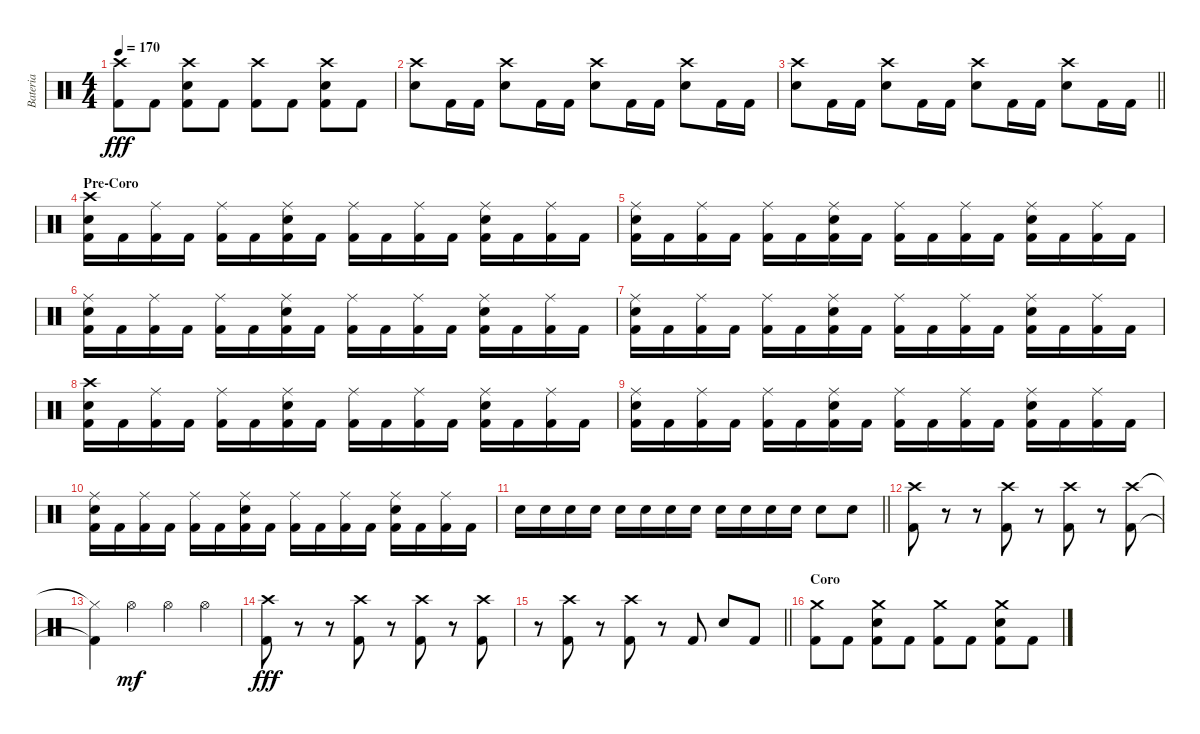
\track ("Bateria" "Bateria") {instrument percussion}
\staff {score}
\articulation defaults
\ts (4 4)
\tempo 170
\clef neutral
\ks c
("Crash high (hit)" "Kick (hit) 2").8{dy fff} "Kick (hit) 2".8 ("Crash high (hit)" "Electric Snare (hit)" "Kick (hit) 2").8 "Kick (hit) 2".8 ("Crash high (hit)" "Kick (hit) 2").8 "Kick (hit) 2".8 ("Crash high (hit)" "Electric Snare (hit)" "Kick (hit) 2").8 "Kick (hit) 2".8 |
("Crash high (hit)" "Electric Snare (hit)").8 "Kick (hit) 2".16 "Kick (hit) 2".16 ("Crash high (hit)" "Electric Snare (hit)").8 "Kick (hit) 2".16 "Kick (hit) 2".16 ("Crash high (hit)" "Electric Snare (hit)").8 "Kick (hit) 2".16 "Kick (hit) 2".16 ("Crash high (hit)" "Electric Snare (hit)").8 "Kick (hit) 2".16 "Kick (hit) 2".16 |
\barLineRight lightlight
("Crash high (hit)" "Electric Snare (hit)").8 "Kick (hit) 2".16 "Kick (hit) 2".16 ("Crash high (hit)" "Electric Snare (hit)").8 "Kick (hit) 2".16 "Kick (hit) 2".16 ("Crash high (hit)" "Electric Snare (hit)").8 "Kick (hit) 2".16 "Kick (hit) 2".16 ("Crash high (hit)" "Electric Snare (hit)").8 "Kick (hit) 2".16 "Kick (hit) 2".16 |
\section ("" "Pre-Coro")
("Crash high (hit)" "Electric Snare (hit)" "Kick (hit) 2").16 "Kick (hit) 2".16 ("Ride (middle)" "Kick (hit) 2").16 "Kick (hit) 2".16 ("Ride (middle)" "Kick (hit) 2").16 "Kick (hit) 2".16 ("Ride (middle)" "Electric Snare (hit)" "Kick (hit) 2").16 "Kick (hit) 2".16 ("Ride (middle)" "Kick (hit) 2").16 "Kick (hit) 2".16 ("Ride (middle)" "Kick (hit) 2").16 "Kick (hit) 2".16 ("Ride (middle)" "Electric Snare (hit)" "Kick (hit) 2").16 "Kick (hit) 2".16 ("Ride (middle)" "Kick (hit) 2").16 "Kick (hit) 2".16 |
("Ride (middle)" "Electric Snare (hit)" "Kick (hit) 2").16 "Kick (hit) 2".16 ("Ride (middle)" "Kick (hit) 2").16 "Kick (hit) 2".16 ("Ride (middle)" "Kick (hit) 2").16 "Kick (hit) 2".16 ("Ride (middle)" "Electric Snare (hit)" "Kick (hit) 2").16 "Kick (hit) 2".16 ("Ride (middle)" "Kick (hit) 2").16 "Kick (hit) 2".16 ("Ride (middle)" "Kick (hit) 2").16 "Kick (hit) 2".16 ("Ride (middle)" "Electric Snare (hit)" "Kick (hit) 2").16 "Kick (hit) 2".16 ("Ride (middle)" "Kick (hit) 2").16 "Kick (hit) 2".16 |
("Ride (middle)" "Electric Snare (hit)" "Kick (hit) 2").16 "Kick (hit) 2".16 ("Ride (middle)" "Kick (hit) 2").16 "Kick (hit) 2".16 ("Ride (middle)" "Kick (hit) 2").16 "Kick (hit) 2".16 ("Ride (middle)" "Electric Snare (hit)" "Kick (hit) 2").16 "Kick (hit) 2".16 ("Ride (middle)" "Kick (hit) 2").16 "Kick (hit) 2".16 ("Ride (middle)" "Kick (hit) 2").16 "Kick (hit) 2".16 ("Ride (middle)" "Electric Snare (hit)" "Kick (hit) 2").16 "Kick (hit) 2".16 ("Ride (middle)" "Kick (hit) 2").16 "Kick (hit) 2".16 |
("Ride (middle)" "Electric Snare (hit)" "Kick (hit) 2").16 "Kick (hit) 2".16 ("Ride (middle)" "Kick (hit) 2").16 "Kick (hit) 2".16 ("Ride (middle)" "Kick (hit) 2").16 "Kick (hit) 2".16 ("Ride (middle)" "Electric Snare (hit)" "Kick (hit) 2").16 "Kick (hit) 2".16 ("Ride (middle)" "Kick (hit) 2").16 "Kick (hit) 2".16 ("Ride (middle)" "Kick (hit) 2").16 "Kick (hit) 2".16 ("Ride (middle)" "Electric Snare (hit)" "Kick (hit) 2").16 "Kick (hit) 2".16 ("Ride (middle)" "Kick (hit) 2").16 "Kick (hit) 2".16 |
("Crash high (hit)" "Electric Snare (hit)" "Kick (hit) 2").16 "Kick (hit) 2".16 ("Ride (middle)" "Kick (hit) 2").16 "Kick (hit) 2".16 ("Ride (middle)" "Kick (hit) 2").16 "Kick (hit) 2".16 ("Ride (middle)" "Electric Snare (hit)" "Kick (hit) 2").16 "Kick (hit) 2".16 ("Ride (middle)" "Kick (hit) 2").16 "Kick (hit) 2".16 ("Ride (middle)" "Kick (hit) 2").16 "Kick (hit) 2".16 ("Ride (middle)" "Electric Snare (hit)" "Kick (hit) 2").16 "Kick (hit) 2".16 ("Ride (middle)" "Kick (hit) 2").16 "Kick (hit) 2".16 |
("Ride (middle)" "Electric Snare (hit)" "Kick (hit) 2").16 "Kick (hit) 2".16 ("Ride (middle)" "Kick (hit) 2").16 "Kick (hit) 2".16 ("Ride (middle)" "Kick (hit) 2").16 "Kick (hit) 2".16 ("Ride (middle)" "Electric Snare (hit)" "Kick (hit) 2").16 "Kick (hit) 2".16 ("Ride (middle)" "Kick (hit) 2").16 "Kick (hit) 2".16 ("Ride (middle)" "Kick (hit) 2").16 "Kick (hit) 2".16 ("Ride (middle)" "Electric Snare (hit)" "Kick (hit) 2").16 "Kick (hit) 2".16 ("Ride (middle)" "Kick (hit) 2").16 "Kick (hit) 2".16 |
("Ride (middle)" "Electric Snare (hit)" "Kick (hit) 2").16 "Kick (hit) 2".16 ("Ride (middle)" "Kick (hit) 2").16 "Kick (hit) 2".16 ("Ride (middle)" "Kick (hit) 2").16 "Kick (hit) 2".16 ("Ride (middle)" "Electric Snare (hit)" "Kick (hit) 2").16 "Kick (hit) 2".16 ("Ride (middle)" "Kick (hit) 2").16 "Kick (hit) 2".16 ("Ride (middle)" "Kick (hit) 2").16 "Kick (hit) 2".16 ("Ride (middle)" "Electric Snare (hit)" "Kick (hit) 2").16 "Kick (hit) 2".16 ("Ride (middle)" "Kick (hit) 2").16 "Kick (hit) 2".16 |
\barLineRight lightlight "Electric Snare (hit)".16 "Electric Snare (hit)".16 "Electric Snare (hit)".16 "Electric Snare (hit)".16 "Electric Snare (hit)".16 "Electric Snare (hit)".16 "Electric Snare (hit)".16 "Electric Snare (hit)".16 "Electric Snare (hit)".16 "Electric Snare (hit)".16 "Electric Snare (hit)".16 "Electric Snare (hit)".16 "Electric Snare (hit)".8 "Electric Snare (hit)".8
|
("Crash high (hit)" "Kick (hit) 2").8 r.8 r.8 ("Crash high (hit)" "Kick (hit) 2").8 r.8 ("Crash high (hit)" "Kick (hit) 2").8 r.8 ("Crash high (hit)" "Kick (hit) 2").8 |
("Hi-Hat (closed)"{t} "Kick (hit) 2"{t}).4 "Hi-Hat (open)".4{dy mf} "Hi-Hat (open)".4 "Hi-Hat (open)".4 |
("Crash high (hit)" "Kick (hit) 2").8{dy fff} r.8 r.8 ("Crash high (hit)" "Kick (hit) 2").8 r.8 ("Crash high (hit)" "Kick (hit) 2").8 r.8 ("Crash high (hit)" "Kick (hit) 2").8 |
\barLineRight lightlight
r.8 ("Crash high (hit)" "Kick (hit) 2").8 r.8 ("Crash high (hit)" "Kick (hit) 2").8 r.8 "Kick (hit) 2".8 "Electric Snare (hit)".8 "Kick (hit) 2".8 |
\section ("" "Coro")
("Crash medium (hit)" "Kick (hit) 2").8 "Kick (hit) 2".8 ("Crash medium (hit)" "Electric Snare (hit)" "Kick (hit) 2").8 "Kick (hit) 2".8 ("Crash medium (hit)" "Kick (hit) 2").8 "Kick (hit) 2".8 ("Crash medium (hit)" "Electric Snare (hit)" "Kick (hit) 2").8 "Kick (hit) 2".8
